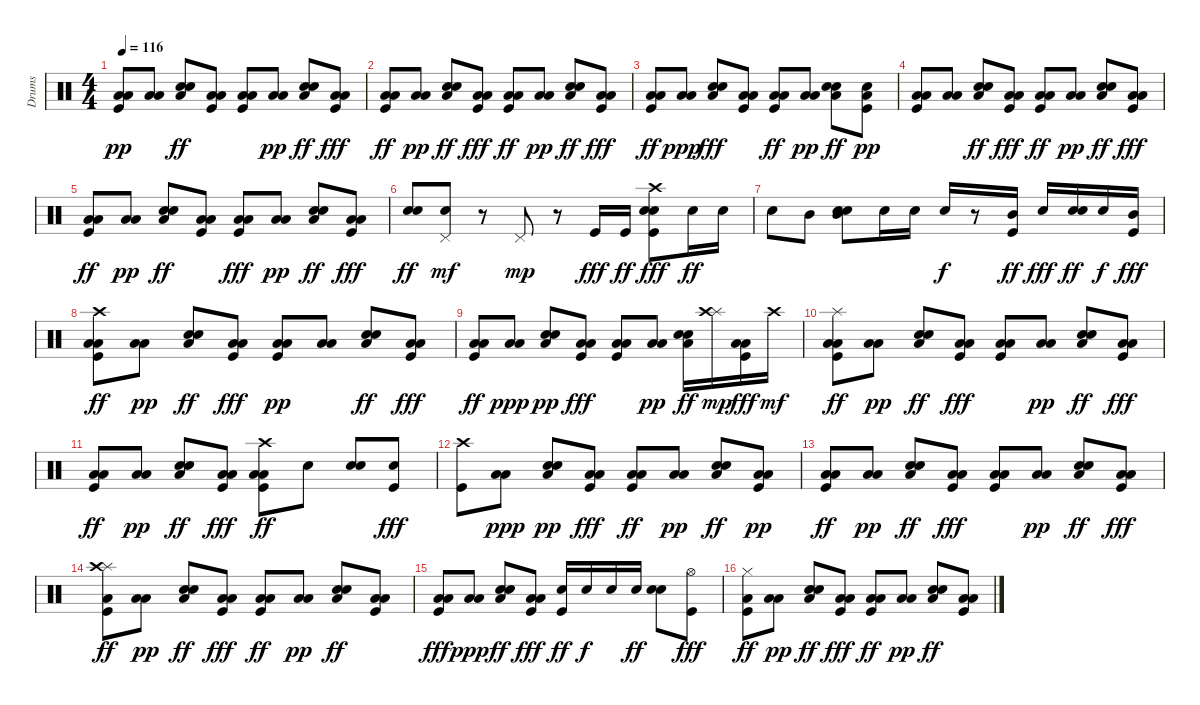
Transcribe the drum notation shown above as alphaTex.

\track ("Drums" "Drums") {instrument percussion}
\staff {score}
\articulation defaults
\ts (4 4)
\tempo 116
\clef neutral
\ks c
("Low Tom (hit)" "Low Floor Tom (hit)" "Kick (hit)").8{dy pp} ("Low Tom (hit)" "Low Floor Tom (hit)").8 ("Snare (hit) 2" "Low Floor Tom (hit)" "Hand Clap (hit)").8{dy ff} ("Low Tom (hit)" "Low Floor Tom (hit)" "Kick (hit)").8 ("Low Tom (hit)" "Low Floor Tom (hit)" "Kick (hit)").8 ("Low Tom (hit)" "Low Floor Tom (hit)").8{dy pp} ("Snare (hit) 2" "Low Floor Tom (hit)" "Hand Clap (hit)").8{dy ff} ("Low Tom (hit)" "Low Floor Tom (hit)" "Kick (hit)").8{dy fff} |
("Low Tom (hit)" "Low Floor Tom (hit)" "Kick (hit)").8{dy ff} ("Low Tom (hit)" "Low Floor Tom (hit)").8{dy pp} ("Snare (hit) 2" "Low Floor Tom (hit)" "Hand Clap (hit)").8{dy ff} ("Low Tom (hit)" "Low Floor Tom (hit)" "Kick (hit)").8{dy fff} ("Low Tom (hit)" "Low Floor Tom (hit)" "Kick (hit)").8{dy ff} ("Low Floor Tom (hit)" "Low Tom (hit)").8{dy pp} ("Low Floor Tom (hit)" "Hand Clap (hit)" "Snare (hit) 2").8{dy ff} ("Low Tom (hit)" "Low Floor Tom (hit)" "Kick (hit)").8{dy fff} |
("Low Tom (hit)" "Low Floor Tom (hit)" "Kick (hit)").8{dy ff} ("Low Floor Tom (hit)" "Low Tom (hit)").8{dy ppp} ("Snare (hit) 2" "Low Floor Tom (hit)" "Hand Clap (hit)").8{dy fff} ("Low Tom (hit)" "Low Floor Tom (hit)" "Kick (hit)").8 ("Low Tom (hit)" "Low Floor Tom (hit)" "Kick (hit)").8{dy ff} ("Low Tom (hit)" "Low Floor Tom (hit)").8{dy pp} ("Low Floor Tom (hit)" "Hand Clap (hit)" "Snare (hit) 2").8{dy ff} ("Snare (hit) 2" "Kick (hit)" "Low Floor Tom (hit)").8{dy pp} |
("Kick (hit)" "Low Tom (hit)" "Low Floor Tom (hit)").8 ("Low Tom (hit)" "Low Floor Tom (hit)").8 ("Snare (hit) 2" "Low Floor Tom (hit)" "Hand Clap (hit)").8{dy ff} ("Low Tom (hit)" "Low Floor Tom (hit)" "Kick (hit)").8{dy fff} ("Low Tom (hit)" "Low Floor Tom (hit)" "Kick (hit)").8{dy ff} ("Low Tom (hit)" "Low Floor Tom (hit)").8{dy pp} ("Low Floor Tom (hit)" "Hand Clap (hit)" "Snare (hit) 2").8{dy ff} ("Low Tom (hit)" "Low Floor Tom (hit)" "Kick (hit)").8{dy fff} |
("Low Tom (hit)" "Low Floor Tom (hit)" "Kick (hit)").8{dy ff} ("Low Tom (hit)" "Low Floor Tom (hit)").8{dy pp} ("Snare (hit) 2" "Low Floor Tom (hit)" "Hand Clap (hit)").8{dy ff} ("Low Tom (hit)" "Low Floor Tom (hit)" "Kick (hit)").8 ("Low Tom (hit)" "Low Floor Tom (hit)" "Kick (hit)").8{dy fff} ("Low Floor Tom (hit)" "Low Tom (hit)").8{dy pp} ("Low Floor Tom (hit)" "Hand Clap (hit)" "Snare (hit) 2").8{dy ff} ("Low Tom (hit)" "Low Floor Tom (hit)" "Kick (hit)").8{dy fff} |
("Electric Snare (hit)" "Snare (hit) 2").8{dy ff} ("Hand Clap (hit)" "Pedal Hi-Hat (hit)").8{dy mf} r.8 "Pedal Hi-Hat (hit)".8{dy mp} r.8 "Kick (hit)".16{dy fff} "Kick (hit)".16{dy ff} ("Crash high (hit)" "Hand Clap (hit)" "Snare (hit) 2" "Kick (hit)").8{dy fff} "Snare (hit) 2".16{dy ff} "Snare (hit) 2".16 |
"Snare (hit) 2".8 "Mid Tom (hit)".8 ("Snare (hit) 2" "Hand Clap (hit)" "Mid Tom (hit)").8 "Snare (hit) 2".16 "Snare (hit) 2".16 "Snare (hit) 2".16{dy f} r.8 ("Mid Tom (hit)" "Kick (hit)").16{dy ff} "Snare (hit) 2".16{dy fff} ("Snare (hit) 2" "Hand Clap (hit)").16{dy ff} "Snare (hit) 2".16{dy f} ("Mid Tom (hit)" "Kick (hit)").16{dy fff} |
("Crash high (hit)" "Low Tom (hit)" "Low Floor Tom (hit)" "Kick (hit)").8{dy ff} ("Low Tom (hit)" "Low Floor Tom (hit)").8{dy pp} ("Snare (hit) 2" "Low Floor Tom (hit)" "Hand Clap (hit)").8{dy ff} ("Low Tom (hit)" "Low Floor Tom (hit)" "Kick (hit)").8{dy fff} ("Kick (hit)" "Low Tom (hit)" "Low Floor Tom (hit)").8{dy pp} ("Low Floor Tom (hit)" "Low Tom (hit)").8 ("Low Floor Tom (hit)" "Hand Clap (hit)" "Snare (hit) 2").8{dy ff} ("Low Tom (hit)" "Low Floor Tom (hit)" "Kick (hit)").8{dy fff} |
("Low Tom (hit)" "Low Floor Tom (hit)" "Kick (hit)").8{dy ff} ("Low Floor Tom (hit)" "Low Tom (hit)").8{dy ppp} ("Hand Clap (hit)" "Snare (hit) 2" "Low Floor Tom (hit)").8{dy pp} ("Low Tom (hit)" "Low Floor Tom (hit)" "Kick (hit)").8{dy fff} ("Low Tom (hit)" "Low Floor Tom (hit)" "Kick (hit)").8 ("Low Tom (hit)" "Low Floor Tom (hit)").8{dy pp} ("Snare (hit) 2" "Low Floor Tom (hit)" "Hand Clap (hit)").16{dy ff} ("Splash (hit)" "Crash high (hit)").16{dy mp} ("Low Tom (hit)" "Low Floor Tom (hit)" "Kick (hit)").16{dy fff} "Crash high (hit)".16{dy mf} |
("Splash (hit)" "Low Tom (hit)" "Low Floor Tom (hit)" "Kick (hit)").8{dy ff} ("Low Tom (hit)" "Low Floor Tom (hit)").8{dy pp} ("Snare (hit) 2" "Low Floor Tom (hit)" "Hand Clap (hit)").8{dy ff} ("Low Tom (hit)" "Low Floor Tom (hit)" "Kick (hit)").8{dy fff} ("Low Tom (hit)" "Low Floor Tom (hit)" "Kick (hit)").8 ("Low Tom (hit)" "Low Floor Tom (hit)").8{dy pp} ("Low Floor Tom (hit)" "Hand Clap (hit)" "Snare (hit) 2").8{dy ff} ("Low Tom (hit)" "Low Floor Tom (hit)" "Kick (hit)").8{dy fff} |
("Low Tom (hit)" "Low Floor Tom (hit)" "Kick (hit)").8{dy ff} ("Low Tom (hit)" "Low Floor Tom (hit)").8{dy pp} ("Snare (hit) 2" "Low Floor Tom (hit)" "Hand Clap (hit)").8{dy ff} ("Low Tom (hit)" "Low Floor Tom (hit)" "Kick (hit)").8{dy fff} ("Low Tom (hit)" "Low Floor Tom (hit)" "Kick (hit)" "Crash high (hit)").8{dy ff} "Snare (hit) 2".8 ("Snare (hit) 2" "Hand Clap (hit)").8 ("Snare (hit) 2" "Kick (hit)").8{dy fff} |
("Crash high (hit)" "Kick (hit)").8 ("Low Floor Tom (hit)" "Low Tom (hit)").8{dy ppp} ("Hand Clap (hit)" "Snare (hit) 2" "Low Floor Tom (hit)").8{dy pp} ("Low Tom (hit)" "Low Floor Tom (hit)" "Kick (hit)").8{dy fff} ("Low Tom (hit)" "Low Floor Tom (hit)" "Kick (hit)").8{dy ff} ("Low Tom (hit)" "Low Floor Tom (hit)").8{dy pp} ("Snare (hit) 2" "Low Floor Tom (hit)" "Hand Clap (hit)").8{dy ff} ("Kick (hit)" "Low Tom (hit)" "Low Floor Tom (hit)").8{dy pp} |
("Low Tom (hit)" "Low Floor Tom (hit)" "Kick (hit)").8{dy ff} ("Low Tom (hit)" "Low Floor Tom (hit)").8{dy pp} ("Snare (hit) 2" "Low Floor Tom (hit)" "Hand Clap (hit)").8{dy ff} ("Low Tom (hit)" "Low Floor Tom (hit)" "Kick (hit)").8{dy fff} ("Low Tom (hit)" "Low Floor Tom (hit)" "Kick (hit)").8 ("Low Tom (hit)" "Low Floor Tom (hit)").8{dy pp} ("Low Floor Tom (hit)" "Hand Clap (hit)" "Snare (hit) 2").8{dy ff} ("Low Tom (hit)" "Low Floor Tom (hit)" "Kick (hit)").8{dy fff} |
("Splash (hit)" "Low Tom (hit)" "Kick (hit)" "Crash high (hit)").8{dy ff} ("Low Tom (hit)" "Low Floor Tom (hit)").8{dy pp} ("Low Floor Tom (hit)" "Hand Clap (hit)" "Snare (hit) 2").8{dy ff} ("Low Tom (hit)" "Low Floor Tom (hit)" "Kick (hit)").8{dy fff} ("Low Tom (hit)" "Low Floor Tom (hit)" "Kick (hit)").8{dy ff} ("Low Floor Tom (hit)" "Low Tom (hit)").8{dy pp} ("Low Floor Tom (hit)" "Hand Clap (hit)" "Snare (hit) 2").8{dy ff} ("Low Tom (hit)" "Low Floor Tom (hit)" "Kick (hit)").8 |
("Low Tom (hit)" "Low Floor Tom (hit)" "Kick (hit)").8{dy fff} ("Low Floor Tom (hit)" "Low Tom (hit)").8{dy ppp} ("Low Floor Tom (hit)" "Hand Clap (hit)" "Snare (hit) 2").8{dy ff} ("Low Tom (hit)" "Low Floor Tom (hit)" "Kick (hit)").8{dy fff} ("Kick (hit)" "Snare (hit) 2").16{dy ff} "Snare (hit) 2".16{dy f} "Snare (hit) 2".16 "Snare (hit) 2".16{dy ff} ("Hand Clap (hit)" "Snare (hit) 2").8 ("Kick (hit)" "Hi-Hat (open)").8{dy fff} |
("Hi-Hat (closed)" "Low Tom (hit)" "Kick (hit)").8{dy ff} ("Low Tom (hit)" "Low Floor Tom (hit)").8{dy pp} ("Low Floor Tom (hit)" "Hand Clap (hit)" "Snare (hit) 2").8{dy ff} ("Low Tom (hit)" "Low Floor Tom (hit)" "Kick (hit)").8{dy fff} ("Low Tom (hit)" "Low Floor Tom (hit)" "Kick (hit)").8{dy ff} ("Low Tom (hit)" "Low Floor Tom (hit)").8{dy pp} ("Low Floor Tom (hit)" "Snare (hit) 2" "Hand Clap (hit)").8{dy ff} ("Low Tom (hit)" "Low Floor Tom (hit)" "Kick (hit)").8
